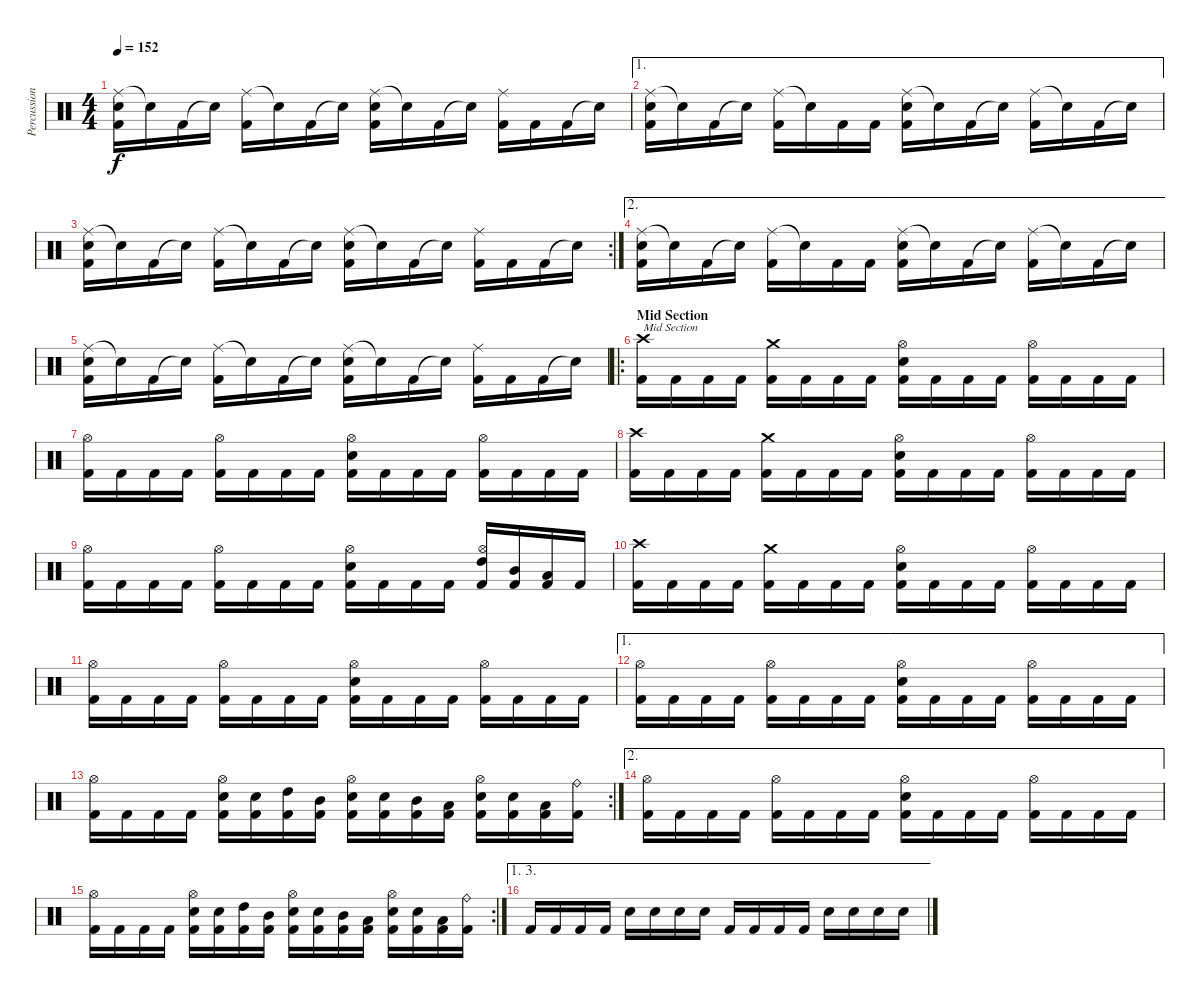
\track ("Percussion" "Percussion") {instrument percussion}
\staff {score}
\articulation defaults
\ts (4 4)
\tempo 152
\clef neutral
\ks c
("Ride (middle)" "Electric Snare (hit)" "Kick (hit) 2").16{dy f} "Snare (hit)"{t}.16 "Kick (hit) 2".16 "Snare (hit)"{t}.16 ("Ride (middle)" "Kick (hit) 2").16 "Snare (hit)"{t}.16 "Kick (hit) 2".16 "Snare (hit)"{t}.16 ("Ride (middle)" "Electric Snare (hit)" "Kick (hit) 2").16 "Snare (hit)"{t}.16 "Kick (hit) 2".16 "Snare (hit)"{t}.16 ("Ride (middle)" "Kick (hit) 2").16 "Kick (hit) 2".16 "Kick (hit) 2".16 "Snare (hit)"{t}.16 |
\ae 1
("Ride (middle)" "Electric Snare (hit)" "Kick (hit) 2").16 "Snare (hit)"{t}.16 "Kick (hit) 2".16 "Snare (hit)"{t}.16 ("Ride (middle)" "Kick (hit) 2").16 "Snare (hit)"{t}.16 "Kick (hit) 2".16 "Kick (hit) 2".16 ("Ride (middle)" "Electric Snare (hit)" "Kick (hit) 2").16 "Snare (hit)"{t}.16 "Kick (hit) 2".16 "Snare (hit)"{t}.16 ("Ride (middle)" "Kick (hit) 2").16 "Snare (hit)"{t}.16 "Kick (hit) 2".16 "Snare (hit)"{t}.16 |
\rc 2
("Ride (middle)" "Electric Snare (hit)" "Kick (hit) 2").16 "Snare (hit)"{t}.16 "Kick (hit) 2".16 "Snare (hit)"{t}.16 ("Ride (middle)" "Kick (hit) 2").16 "Snare (hit)"{t}.16 "Kick (hit) 2".16 "Snare (hit)"{t}.16 ("Ride (middle)" "Electric Snare (hit)" "Kick (hit) 2").16 "Snare (hit)"{t}.16 "Kick (hit) 2".16 "Snare (hit)"{t}.16 ("Ride (middle)" "Kick (hit) 2").16 "Kick (hit) 2".16 "Kick (hit) 2".16 "Snare (hit)"{t}.16 |
\ae 2
("Ride (middle)" "Electric Snare (hit)" "Kick (hit) 2").16 "Snare (hit)"{t}.16 "Kick (hit) 2".16 "Snare (hit)"{t}.16 ("Ride (middle)" "Kick (hit) 2").16 "Snare (hit)"{t}.16 "Kick (hit) 2".16 "Kick (hit) 2".16 ("Ride (middle)" "Electric Snare (hit)" "Kick (hit) 2").16 "Snare (hit)"{t}.16 "Kick (hit) 2".16 "Snare (hit)"{t}.16 ("Ride (middle)" "Kick (hit) 2").16 "Snare (hit)"{t}.16 "Kick (hit) 2".16 "Snare (hit)"{t}.16 |
("Ride (middle)" "Electric Snare (hit)" "Kick (hit) 2").16 "Snare (hit)"{t}.16 "Kick (hit) 2".16 "Snare (hit)"{t}.16 ("Ride (middle)" "Kick (hit) 2").16 "Snare (hit)"{t}.16 "Kick (hit) 2".16 "Snare (hit)"{t}.16 ("Ride (middle)" "Electric Snare (hit)" "Kick (hit) 2").16 "Snare (hit)"{t}.16 "Kick (hit) 2".16 "Snare (hit)"{t}.16 ("Ride (middle)" "Kick (hit) 2").16 "Kick (hit) 2".16 "Kick (hit) 2".16 "Snare (hit)"{t}.16 |
\ro
\section ("" "Mid Section")
("Crash high (hit)" "Kick (hit) 2").16{txt "Mid Section"} "Kick (hit) 2".16 "Kick (hit) 2".16 "Kick (hit) 2".16 ("Crash medium (hit)" "Kick (hit) 2").16 "Kick (hit) 2".16 "Kick (hit) 2".16 "Kick (hit) 2".16 ("Hi-Hat (open)" "Electric Snare (hit)" "Kick (hit) 2").16 "Kick (hit) 2".16 "Kick (hit) 2".16 "Kick (hit) 2".16 ("Hi-Hat (open)" "Kick (hit) 2").16 "Kick (hit) 2".16 "Kick (hit) 2".16 "Kick (hit) 2".16 |
("Hi-Hat (open)" "Kick (hit) 2").16 "Kick (hit) 2".16 "Kick (hit) 2".16 "Kick (hit) 2".16 ("Hi-Hat (open)" "Kick (hit) 2").16 "Kick (hit) 2".16 "Kick (hit) 2".16 "Kick (hit) 2".16 ("Hi-Hat (open)" "Electric Snare (hit)" "Kick (hit) 2").16 "Kick (hit) 2".16 "Kick (hit) 2".16 "Kick (hit) 2".16 ("Hi-Hat (open)" "Kick (hit) 2").16 "Kick (hit) 2".16 "Kick (hit) 2".16 "Kick (hit) 2".16 |
("Crash high (hit)" "Kick (hit) 2").16 "Kick (hit) 2".16 "Kick (hit) 2".16 "Kick (hit) 2".16 ("Crash medium (hit)" "Kick (hit) 2").16 "Kick (hit) 2".16 "Kick (hit) 2".16 "Kick (hit) 2".16 ("Hi-Hat (open)" "Electric Snare (hit)" "Kick (hit) 2").16 "Kick (hit) 2".16 "Kick (hit) 2".16 "Kick (hit) 2".16 ("Hi-Hat (open)" "Kick (hit) 2").16 "Kick (hit) 2".16 "Kick (hit) 2".16 "Kick (hit) 2".16 |
("Hi-Hat (open)" "Kick (hit) 2").16 "Kick (hit) 2".16 "Kick (hit) 2".16 "Kick (hit) 2".16 ("Hi-Hat (open)" "Kick (hit) 2").16 "Kick (hit) 2".16 "Kick (hit) 2".16 "Kick (hit) 2".16 ("Hi-Hat (open)" "Electric Snare (hit)" "Kick (hit) 2").16 "Kick (hit) 2".16 "Kick (hit) 2".16 "Kick (hit) 2".16 ("Hi-Hat (open)" "High Tom (hit)" "Kick (hit) 2").16 ("Mid Tom (hit)" "Kick (hit) 2").16 ("Low Tom (hit)" "Kick (hit) 2").16 "Kick (hit) 2".16 |
("Crash high (hit)" "Kick (hit) 2").16 "Kick (hit) 2".16 "Kick (hit) 2".16 "Kick (hit) 2".16 ("Crash medium (hit)" "Kick (hit) 2").16 "Kick (hit) 2".16 "Kick (hit) 2".16 "Kick (hit) 2".16 ("Hi-Hat (open)" "Electric Snare (hit)" "Kick (hit) 2").16 "Kick (hit) 2".16 "Kick (hit) 2".16 "Kick (hit) 2".16 ("Hi-Hat (open)" "Kick (hit) 2").16 "Kick (hit) 2".16 "Kick (hit) 2".16 "Kick (hit) 2".16 |
("Hi-Hat (open)" "Kick (hit) 2").16 "Kick (hit) 2".16 "Kick (hit) 2".16 "Kick (hit) 2".16 ("Hi-Hat (open)" "Kick (hit) 2").16 "Kick (hit) 2".16 "Kick (hit) 2".16 "Kick (hit) 2".16 ("Hi-Hat (open)" "Electric Snare (hit)" "Kick (hit) 2").16 "Kick (hit) 2".16 "Kick (hit) 2".16 "Kick (hit) 2".16 ("Hi-Hat (open)" "Kick (hit) 2").16 "Kick (hit) 2".16 "Kick (hit) 2".16 "Kick (hit) 2".16 |
\ae 1
("Hi-Hat (open)" "Kick (hit) 2").16 "Kick (hit) 2".16 "Kick (hit) 2".16 "Kick (hit) 2".16 ("Hi-Hat (open)" "Kick (hit) 2").16 "Kick (hit) 2".16 "Kick (hit) 2".16 "Kick (hit) 2".16 ("Hi-Hat (open)" "Electric Snare (hit)" "Kick (hit) 2").16 "Kick (hit) 2".16 "Kick (hit) 2".16 "Kick (hit) 2".16 ("Hi-Hat (open)" "Kick (hit) 2").16 "Kick (hit) 2".16 "Kick (hit) 2".16 "Kick (hit) 2".16 |
\rc 2
("Hi-Hat (open)" "Kick (hit) 2").16 "Kick (hit) 2".16 "Kick (hit) 2".16 "Kick (hit) 2".16 ("Hi-Hat (open)" "Electric Snare (hit)" "Kick (hit) 2").16 ("Electric Snare (hit)" "Kick (hit) 2").16 ("High Tom (hit)" "Kick (hit) 2").16 ("Mid Tom (hit)" "Kick (hit) 2").16 ("Hi-Hat (open)" "Electric Snare (hit)" "Kick (hit) 2").16 ("Electric Snare (hit)" "Kick (hit) 2").16 ("Mid Tom (hit)" "Kick (hit) 2").16 ("Low Tom (hit)" "Kick (hit) 2").16 ("Hi-Hat (open)" "Electric Snare (hit)" "Kick (hit) 2").16 ("Electric Snare (hit)" "Kick (hit) 2").16 ("Low Tom (hit)" "Kick (hit) 2").16 ("Ride (bell)" "Kick (hit) 2").16 |
\ae 2
("Hi-Hat (open)" "Kick (hit) 2").16 "Kick (hit) 2".16 "Kick (hit) 2".16 "Kick (hit) 2".16 ("Hi-Hat (open)" "Kick (hit) 2").16 "Kick (hit) 2".16 "Kick (hit) 2".16 "Kick (hit) 2".16 ("Hi-Hat (open)" "Electric Snare (hit)" "Kick (hit) 2").16 "Kick (hit) 2".16 "Kick (hit) 2".16 "Kick (hit) 2".16 ("Hi-Hat (open)" "Kick (hit) 2").16 "Kick (hit) 2".16 "Kick (hit) 2".16 "Kick (hit) 2".16 |
\rc 2
("Hi-Hat (open)" "Kick (hit) 2").16 "Kick (hit) 2".16 "Kick (hit) 2".16 "Kick (hit) 2".16 ("Hi-Hat (open)" "Electric Snare (hit)" "Kick (hit) 2").16 ("Electric Snare (hit)" "Kick (hit) 2").16 ("High Tom (hit)" "Kick (hit) 2").16 ("Mid Tom (hit)" "Kick (hit) 2").16 ("Hi-Hat (open)" "Electric Snare (hit)" "Kick (hit) 2").16 ("Electric Snare (hit)" "Kick (hit) 2").16 ("Mid Tom (hit)" "Kick (hit) 2").16 ("Low Tom (hit)" "Kick (hit) 2").16 ("Hi-Hat (open)" "Electric Snare (hit)" "Kick (hit) 2").16 ("Electric Snare (hit)" "Kick (hit) 2").16 ("Low Tom (hit)" "Kick (hit) 2").16 ("Ride (bell)" "Kick (hit) 2").16 |
\ae (1 3)
"Kick (hit) 2".16 "Kick (hit) 2".16 "Kick (hit) 2".16 "Kick (hit) 2".16 "Electric Snare (hit)".16 "Electric Snare (hit)".16 "Electric Snare (hit)".16 "Electric Snare (hit)".16 "Kick (hit) 2".16 "Kick (hit) 2".16 "Kick (hit) 2".16 "Kick (hit) 2".16 "Electric Snare (hit)".16 "Electric Snare (hit)".16 "Electric Snare (hit)".16 "Electric Snare (hit)".16
